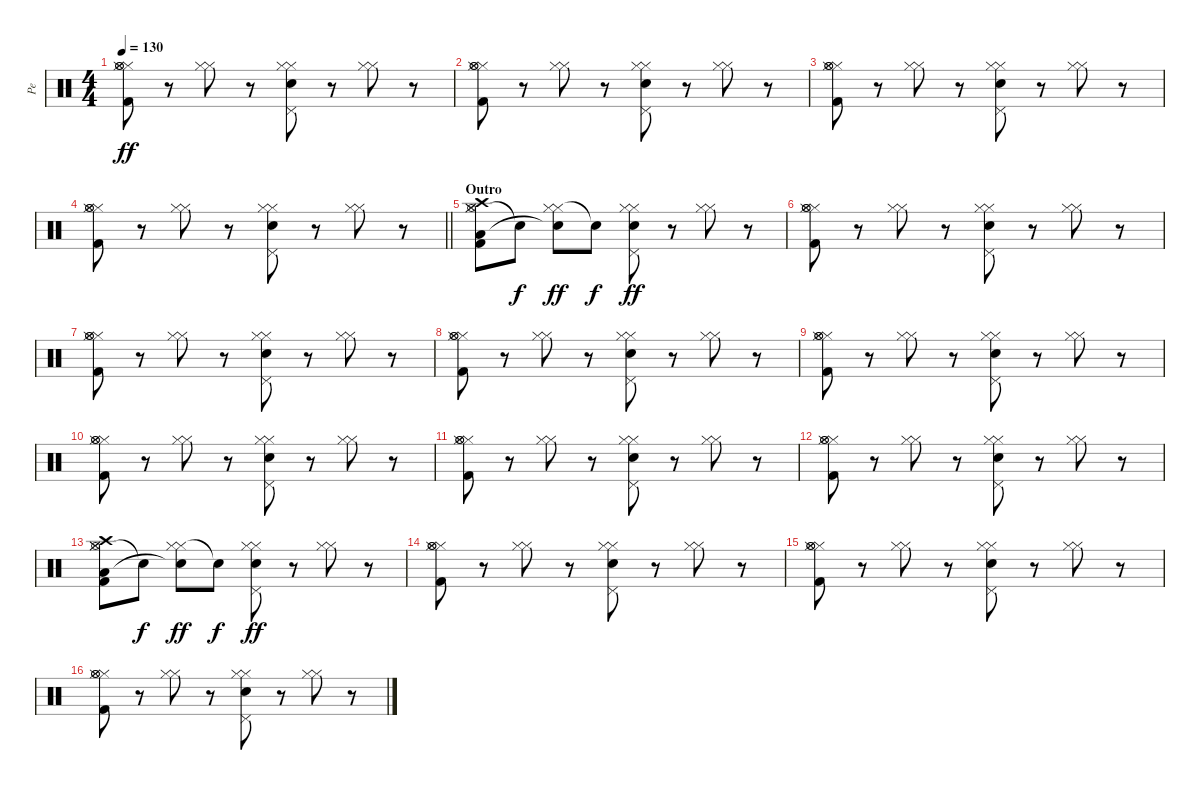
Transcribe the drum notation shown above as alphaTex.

\track ("Pe" "Pe") {instrument percussion}
\staff {score}
\articulation defaults
\ts (4 4)
\tempo 130
\clef neutral
\ks c
("Hi-Hat (closed)" "Hi-Hat (closed)" "Hi-Hat (open)" "Hi-Hat (open)" "Kick (hit) 2").8{dy ff} r.8 ("Hi-Hat (closed)" "Hi-Hat (closed)").8 r.8 ("Hi-Hat (closed)" "Hi-Hat (closed)" "Pedal Hi-Hat (hit)" "Electric Snare (hit)").8 r.8 ("Hi-Hat (closed)" "Hi-Hat (closed)").8 r.8 |
("Hi-Hat (closed)" "Hi-Hat (closed)" "Hi-Hat (open)" "Hi-Hat (open)" "Kick (hit) 2").8 r.8 ("Hi-Hat (closed)" "Hi-Hat (closed)").8 r.8 ("Hi-Hat (closed)" "Hi-Hat (closed)" "Pedal Hi-Hat (hit)" "Electric Snare (hit)").8 r.8 ("Hi-Hat (closed)" "Hi-Hat (closed)").8 r.8 |
("Hi-Hat (closed)" "Hi-Hat (closed)" "Hi-Hat (open)" "Hi-Hat (open)" "Kick (hit) 2").8 r.8 ("Hi-Hat (closed)" "Hi-Hat (closed)").8 r.8 ("Hi-Hat (closed)" "Hi-Hat (closed)" "Pedal Hi-Hat (hit)" "Electric Snare (hit)").8 r.8 ("Hi-Hat (closed)" "Hi-Hat (closed)").8 r.8 |
\barLineRight lightlight
("Hi-Hat (closed)" "Hi-Hat (closed)" "Hi-Hat (open)" "Hi-Hat (open)" "Kick (hit) 2").8 r.8 ("Hi-Hat (closed)" "Hi-Hat (closed)").8 r.8 ("Hi-Hat (closed)" "Hi-Hat (closed)" "Pedal Hi-Hat (hit)" "Electric Snare (hit)").8 r.8 ("Hi-Hat (closed)" "Hi-Hat (closed)").8 r.8 |
\section ("" "Outro")
("Hi-Hat (closed)" "Hi-Hat (closed)" "Low Floor Tom (hit)" "Hi-Hat (open)" "Crash high (hit)" "Kick (hit) 2").8 "Snare (hit)"{t}.8{dy f} ("Hi-Hat (closed)" "Hi-Hat (closed)" "Snare (hit)"{t}).8{dy ff} "Snare (hit)"{t}.8{dy f} ("Hi-Hat (closed)" "Hi-Hat (closed)" "Pedal Hi-Hat (hit)" "Electric Snare (hit)").8{dy ff} r.8 ("Hi-Hat (closed)" "Hi-Hat (closed)").8 r.8 |
("Hi-Hat (closed)" "Hi-Hat (closed)" "Hi-Hat (open)" "Hi-Hat (open)" "Kick (hit) 2").8 r.8 ("Hi-Hat (closed)" "Hi-Hat (closed)").8 r.8 ("Hi-Hat (closed)" "Hi-Hat (closed)" "Pedal Hi-Hat (hit)" "Electric Snare (hit)").8 r.8 ("Hi-Hat (closed)" "Hi-Hat (closed)").8 r.8 |
("Hi-Hat (closed)" "Hi-Hat (closed)" "Hi-Hat (open)" "Hi-Hat (open)" "Kick (hit) 2").8 r.8 ("Hi-Hat (closed)" "Hi-Hat (closed)").8 r.8 ("Hi-Hat (closed)" "Hi-Hat (closed)" "Pedal Hi-Hat (hit)" "Electric Snare (hit)").8 r.8 ("Hi-Hat (closed)" "Hi-Hat (closed)").8 r.8 |
("Hi-Hat (closed)" "Hi-Hat (closed)" "Hi-Hat (open)" "Hi-Hat (open)" "Kick (hit) 2").8 r.8 ("Hi-Hat (closed)" "Hi-Hat (closed)").8 r.8 ("Hi-Hat (closed)" "Hi-Hat (closed)" "Pedal Hi-Hat (hit)" "Electric Snare (hit)").8 r.8 ("Hi-Hat (closed)" "Hi-Hat (closed)").8 r.8 |
("Hi-Hat (closed)" "Hi-Hat (closed)" "Hi-Hat (open)" "Hi-Hat (open)" "Kick (hit) 2").8 r.8 ("Hi-Hat (closed)" "Hi-Hat (closed)").8 r.8 ("Hi-Hat (closed)" "Hi-Hat (closed)" "Pedal Hi-Hat (hit)" "Electric Snare (hit)").8 r.8 ("Hi-Hat (closed)" "Hi-Hat (closed)").8 r.8 |
("Hi-Hat (closed)" "Hi-Hat (closed)" "Hi-Hat (open)" "Hi-Hat (open)" "Kick (hit) 2").8 r.8 ("Hi-Hat (closed)" "Hi-Hat (closed)").8 r.8 ("Hi-Hat (closed)" "Hi-Hat (closed)" "Pedal Hi-Hat (hit)" "Electric Snare (hit)").8 r.8 ("Hi-Hat (closed)" "Hi-Hat (closed)").8 r.8 |
("Hi-Hat (closed)" "Hi-Hat (closed)" "Hi-Hat (open)" "Hi-Hat (open)" "Kick (hit) 2").8 r.8 ("Hi-Hat (closed)" "Hi-Hat (closed)").8 r.8 ("Hi-Hat (closed)" "Hi-Hat (closed)" "Pedal Hi-Hat (hit)" "Electric Snare (hit)").8 r.8 ("Hi-Hat (closed)" "Hi-Hat (closed)").8 r.8 |
("Hi-Hat (closed)" "Hi-Hat (closed)" "Hi-Hat (open)" "Hi-Hat (open)" "Kick (hit) 2").8 r.8 ("Hi-Hat (closed)" "Hi-Hat (closed)").8 r.8 ("Hi-Hat (closed)" "Hi-Hat (closed)" "Pedal Hi-Hat (hit)" "Electric Snare (hit)").8 r.8 ("Hi-Hat (closed)" "Hi-Hat (closed)").8 r.8 |
("Hi-Hat (closed)" "Hi-Hat (closed)" "Low Floor Tom (hit)" "Hi-Hat (open)" "Crash high (hit)" "Kick (hit) 2").8 "Snare (hit)"{t}.8{dy f} ("Hi-Hat (closed)" "Hi-Hat (closed)" "Snare (hit)"{t}).8{dy ff} "Snare (hit)"{t}.8{dy f} ("Hi-Hat (closed)" "Hi-Hat (closed)" "Pedal Hi-Hat (hit)" "Electric Snare (hit)").8{dy ff} r.8 ("Hi-Hat (closed)" "Hi-Hat (closed)").8 r.8 |
("Hi-Hat (closed)" "Hi-Hat (closed)" "Hi-Hat (open)" "Hi-Hat (open)" "Kick (hit) 2").8 r.8 ("Hi-Hat (closed)" "Hi-Hat (closed)").8 r.8 ("Hi-Hat (closed)" "Hi-Hat (closed)" "Pedal Hi-Hat (hit)" "Electric Snare (hit)").8 r.8 ("Hi-Hat (closed)" "Hi-Hat (closed)").8 r.8 |
("Hi-Hat (closed)" "Hi-Hat (closed)" "Hi-Hat (open)" "Hi-Hat (open)" "Kick (hit) 2").8 r.8 ("Hi-Hat (closed)" "Hi-Hat (closed)").8 r.8 ("Hi-Hat (closed)" "Hi-Hat (closed)" "Pedal Hi-Hat (hit)" "Electric Snare (hit)").8 r.8 ("Hi-Hat (closed)" "Hi-Hat (closed)").8 r.8 |
("Hi-Hat (closed)" "Hi-Hat (closed)" "Hi-Hat (open)" "Hi-Hat (open)" "Kick (hit) 2").8 r.8 ("Hi-Hat (closed)" "Hi-Hat (closed)").8 r.8 ("Hi-Hat (closed)" "Hi-Hat (closed)" "Pedal Hi-Hat (hit)" "Electric Snare (hit)").8 r.8 ("Hi-Hat (closed)" "Hi-Hat (closed)").8 r.8
